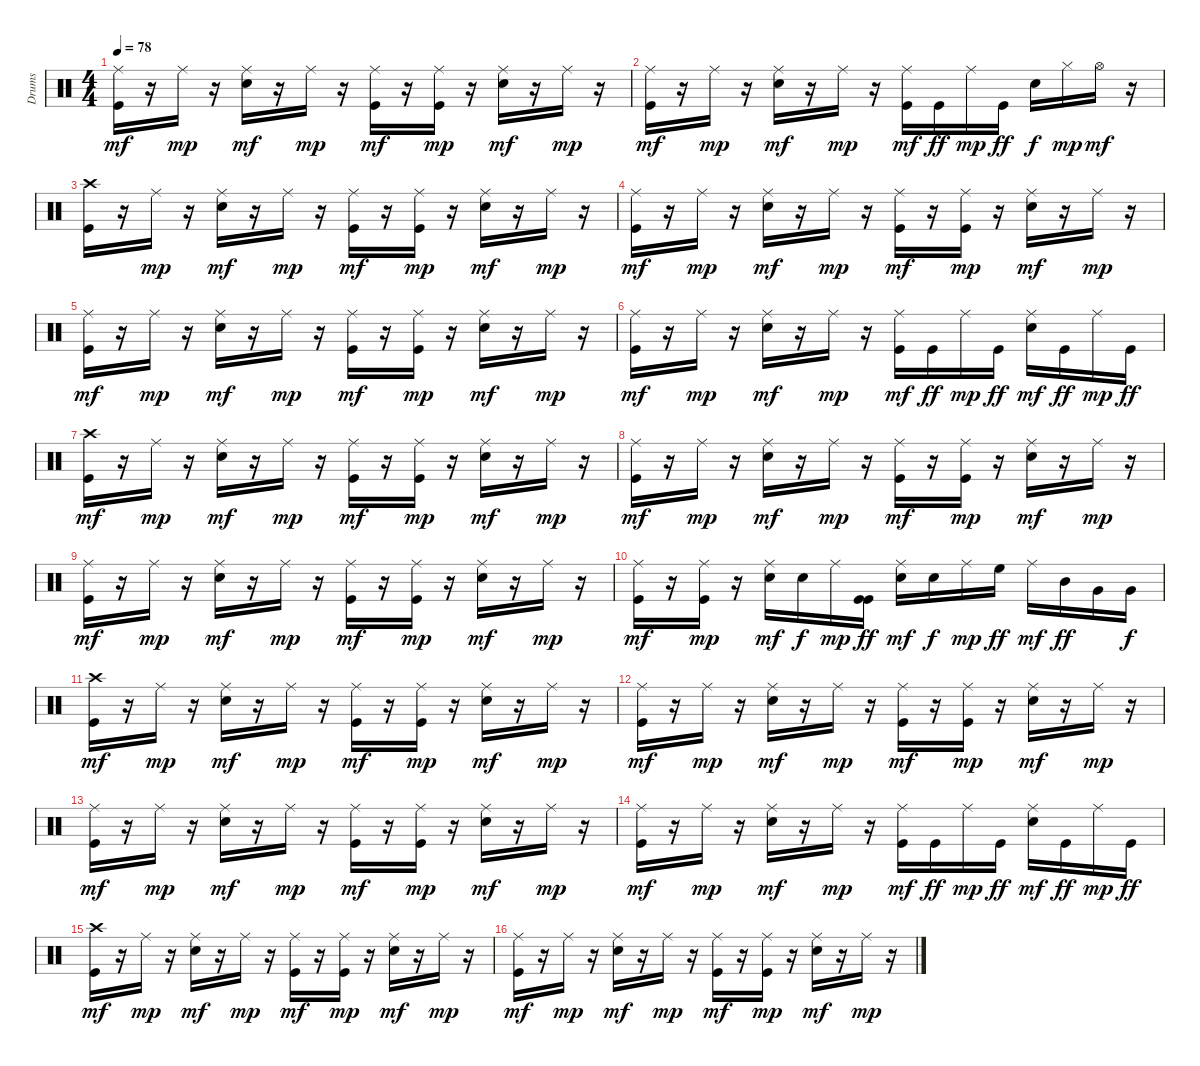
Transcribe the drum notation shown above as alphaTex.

\track ("Drums" "Drums") {instrument percussion}
\staff {score}
\articulation defaults
\ts (4 4)
\tempo 78
\clef neutral
\ks c
("Kick (hit)" "Ride (middle)").16{dy mf} r.16 "Ride (middle)".16{dy mp} r.16 ("Snare (hit) 2" "Ride (middle)").16{dy mf} r.16 "Ride (middle)".16{dy mp} r.16 ("Kick (hit)" "Ride (middle)").16{dy mf} r.16 ("Kick (hit)" "Ride (middle)").16{dy mp} r.16 ("Snare (hit) 2" "Ride (middle)").16{dy mf} r.16 "Ride (middle)".16{dy mp} r.16 |
("Kick (hit)" "Ride (middle)").16{dy mf} r.16 "Ride (middle)".16{dy mp} r.16 ("Snare (hit) 2" "Ride (middle)").16{dy mf} r.16 "Ride (middle)".16{dy mp} r.16 ("Kick (hit)" "Ride (middle)").16{dy mf} "Kick (hit)".16{dy ff} "Ride (middle)".16{dy mp} "Kick (hit)".16{dy ff} "Snare (hit) 2".16{dy f} "Hi-Hat (closed)".16{dy mp} "Hi-Hat (open)".16{dy mf} r.16 |
("Kick (hit)" "Crash high (hit)").16 r.16 "Ride (middle)".16{dy mp} r.16 ("Snare (hit) 2" "Ride (middle)").16{dy mf} r.16 "Ride (middle)".16{dy mp} r.16 ("Kick (hit)" "Ride (middle)").16{dy mf} r.16 ("Kick (hit)" "Ride (middle)").16{dy mp} r.16 ("Snare (hit) 2" "Ride (middle)").16{dy mf} r.16 "Ride (middle)".16{dy mp} r.16 |
("Kick (hit)" "Ride (middle)").16{dy mf} r.16 "Ride (middle)".16{dy mp} r.16 ("Snare (hit) 2" "Ride (middle)").16{dy mf} r.16 "Ride (middle)".16{dy mp} r.16 ("Kick (hit)" "Ride (middle)").16{dy mf} r.16 ("Kick (hit)" "Ride (middle)").16{dy mp} r.16 ("Snare (hit) 2" "Ride (middle)").16{dy mf} r.16 "Ride (middle)".16{dy mp} r.16 |
("Kick (hit)" "Ride (middle)").16{dy mf} r.16 "Ride (middle)".16{dy mp} r.16 ("Snare (hit) 2" "Ride (middle)").16{dy mf} r.16 "Ride (middle)".16{dy mp} r.16 ("Kick (hit)" "Ride (middle)").16{dy mf} r.16 ("Kick (hit)" "Ride (middle)").16{dy mp} r.16 ("Snare (hit) 2" "Ride (middle)").16{dy mf} r.16 "Ride (middle)".16{dy mp} r.16 |
("Kick (hit)" "Ride (middle)").16{dy mf} r.16 "Ride (middle)".16{dy mp} r.16 ("Snare (hit) 2" "Ride (middle)").16{dy mf} r.16 "Ride (middle)".16{dy mp} r.16 ("Kick (hit)" "Ride (middle)").16{dy mf} "Kick (hit)".16{dy ff} "Ride (middle)".16{dy mp} "Kick (hit)".16{dy ff} ("Snare (hit) 2" "Ride (middle)").16{dy mf} "Kick (hit)".16{dy ff} "Ride (middle)".16{dy mp} "Kick (hit)".16{dy ff} |
("Kick (hit)" "Crash high (hit)").16{dy mf} r.16 "Ride (middle)".16{dy mp} r.16 ("Snare (hit) 2" "Ride (middle)").16{dy mf} r.16 "Ride (middle)".16{dy mp} r.16 ("Kick (hit)" "Ride (middle)").16{dy mf} r.16 ("Kick (hit)" "Ride (middle)").16{dy mp} r.16 ("Snare (hit) 2" "Ride (middle)").16{dy mf} r.16 "Ride (middle)".16{dy mp} r.16 |
("Kick (hit)" "Ride (middle)").16{dy mf} r.16 "Ride (middle)".16{dy mp} r.16 ("Snare (hit) 2" "Ride (middle)").16{dy mf} r.16 "Ride (middle)".16{dy mp} r.16 ("Kick (hit)" "Ride (middle)").16{dy mf} r.16 ("Kick (hit)" "Ride (middle)").16{dy mp} r.16 ("Snare (hit) 2" "Ride (middle)").16{dy mf} r.16 "Ride (middle)".16{dy mp} r.16 |
("Kick (hit)" "Ride (middle)").16{dy mf} r.16 "Ride (middle)".16{dy mp} r.16 ("Snare (hit) 2" "Ride (middle)").16{dy mf} r.16 "Ride (middle)".16{dy mp} r.16 ("Kick (hit)" "Ride (middle)").16{dy mf} r.16 ("Kick (hit)" "Ride (middle)").16{dy mp} r.16 ("Snare (hit) 2" "Ride (middle)").16{dy mf} r.16 "Ride (middle)".16{dy mp} r.16 |
("Kick (hit)" "Ride (middle)").16{dy mf} r.16 ("Kick (hit)" "Ride (middle)").16{dy mp} r.16 ("Snare (hit) 2" "Ride (middle)").16{dy mf} "Snare (hit) 2".16{dy f} "Ride (middle)".16{dy mp} ("Kick (hit)" "Kick (hit)").16{dy ff} ("Snare (hit) 2" "Ride (middle)").16{dy mf} "Snare (hit) 2".16{dy f} "Ride (middle)".16{dy mp} "High Floor Tom (hit)".16{dy ff} "Ride (middle)".16{dy mf} "Mid Tom (hit)".16{dy ff} "Very Low Tom (hit)".16 "Very Low Tom (hit)".16{dy f} |
("Kick (hit)" "Crash high (hit)").16{dy mf} r.16 "Ride (middle)".16{dy mp} r.16 ("Snare (hit) 2" "Ride (middle)").16{dy mf} r.16 "Ride (middle)".16{dy mp} r.16 ("Kick (hit)" "Ride (middle)").16{dy mf} r.16 ("Kick (hit)" "Ride (middle)").16{dy mp} r.16 ("Snare (hit) 2" "Ride (middle)").16{dy mf} r.16 "Ride (middle)".16{dy mp} r.16 |
("Kick (hit)" "Ride (middle)").16{dy mf} r.16 "Ride (middle)".16{dy mp} r.16 ("Snare (hit) 2" "Ride (middle)").16{dy mf} r.16 "Ride (middle)".16{dy mp} r.16 ("Kick (hit)" "Ride (middle)").16{dy mf} r.16 ("Kick (hit)" "Ride (middle)").16{dy mp} r.16 ("Snare (hit) 2" "Ride (middle)").16{dy mf} r.16 "Ride (middle)".16{dy mp} r.16 |
("Kick (hit)" "Ride (middle)").16{dy mf} r.16 "Ride (middle)".16{dy mp} r.16 ("Snare (hit) 2" "Ride (middle)").16{dy mf} r.16 "Ride (middle)".16{dy mp} r.16 ("Kick (hit)" "Ride (middle)").16{dy mf} r.16 ("Kick (hit)" "Ride (middle)").16{dy mp} r.16 ("Snare (hit) 2" "Ride (middle)").16{dy mf} r.16 "Ride (middle)".16{dy mp} r.16 |
("Kick (hit)" "Ride (middle)").16{dy mf} r.16 "Ride (middle)".16{dy mp} r.16 ("Snare (hit) 2" "Ride (middle)").16{dy mf} r.16 "Ride (middle)".16{dy mp} r.16 ("Kick (hit)" "Ride (middle)").16{dy mf} "Kick (hit)".16{dy ff} "Ride (middle)".16{dy mp} "Kick (hit)".16{dy ff} ("Snare (hit) 2" "Ride (middle)").16{dy mf} "Kick (hit)".16{dy ff} "Ride (middle)".16{dy mp} "Kick (hit)".16{dy ff} |
("Kick (hit)" "Crash high (hit)").16{dy mf} r.16 "Ride (middle)".16{dy mp} r.16 ("Snare (hit) 2" "Ride (middle)").16{dy mf} r.16 "Ride (middle)".16{dy mp} r.16 ("Kick (hit)" "Ride (middle)").16{dy mf} r.16 ("Kick (hit)" "Ride (middle)").16{dy mp} r.16 ("Snare (hit) 2" "Ride (middle)").16{dy mf} r.16 "Ride (middle)".16{dy mp} r.16 |
("Kick (hit)" "Ride (middle)").16{dy mf} r.16 "Ride (middle)".16{dy mp} r.16 ("Snare (hit) 2" "Ride (middle)").16{dy mf} r.16 "Ride (middle)".16{dy mp} r.16 ("Kick (hit)" "Ride (middle)").16{dy mf} r.16 ("Kick (hit)" "Ride (middle)").16{dy mp} r.16 ("Snare (hit) 2" "Ride (middle)").16{dy mf} r.16 "Ride (middle)".16{dy mp} r.16
